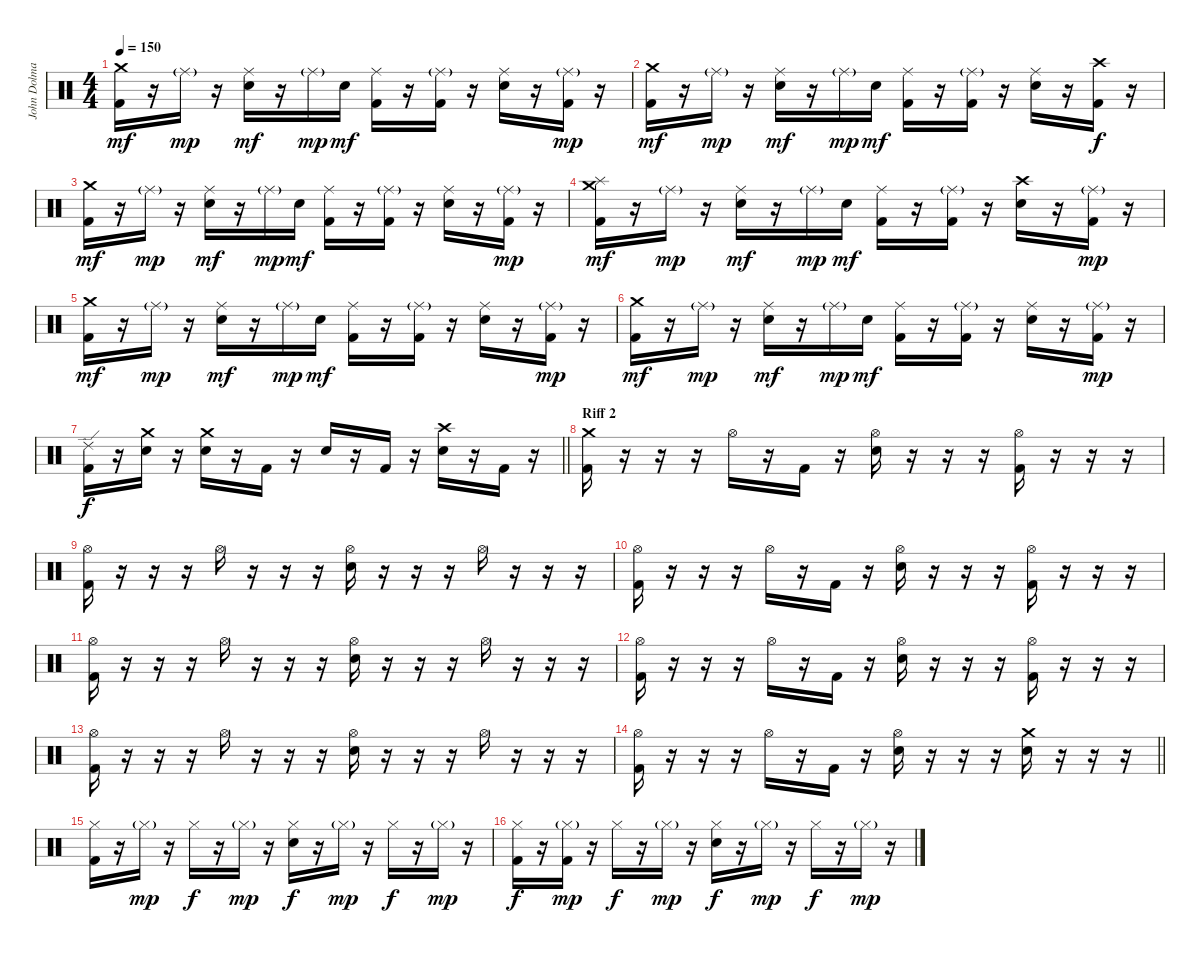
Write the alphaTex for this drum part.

\track ("John Dolmayan" "John Dolma") {instrument percussion}
\staff {score}
\articulation defaults
\ts (4 4)
\tempo 150
\clef neutral
\ks c
("Crash medium (hit)" "Kick (hit) 2").16{dy mf} r.16 "Ride (middle)"{g}.16{dy mp} r.16 ("Ride (middle)" "Electric Snare (hit)").16{dy mf} r.16 "Ride (middle)"{g}.16{dy mp} "Electric Snare (hit)".16{dy mf} ("Ride (middle)" "Kick (hit) 2").16 r.16 ("Ride (middle)"{g} "Kick (hit) 2").16 r.16 ("Ride (middle)" "Electric Snare (hit)").16 r.16 ("Ride (middle)"{g} "Kick (hit) 2").16{dy mp} r.16 |
("Crash medium (hit)" "Kick (hit) 2").16{dy mf} r.16 "Ride (middle)"{g}.16{dy mp} r.16 ("Ride (middle)" "Electric Snare (hit)").16{dy mf} r.16 "Ride (middle)"{g}.16{dy mp} "Electric Snare (hit)".16{dy mf} ("Ride (middle)" "Kick (hit) 2").16 r.16 ("Ride (middle)"{g} "Kick (hit) 2").16 r.16 ("Ride (middle)" "Electric Snare (hit)").16 r.16 ("Crash high (hit)" "Kick (hit) 2").16{dy f} r.16 |
("Crash medium (hit)" "Kick (hit) 2").16{dy mf} r.16 "Ride (middle)"{g}.16{dy mp} r.16 ("Ride (middle)" "Electric Snare (hit)").16{dy mf} r.16 "Ride (middle)"{g}.16{dy mp} "Electric Snare (hit)".16{dy mf} ("Ride (middle)" "Kick (hit) 2").16 r.16 ("Ride (middle)"{g} "Kick (hit) 2").16 r.16 ("Ride (middle)" "Electric Snare (hit)").16 r.16 ("Ride (middle)"{g} "Kick (hit) 2").16{dy mp} r.16 |
("Crash medium (hit)" "Splash (hit)" "Kick (hit) 2").16{dy mf} r.16 "Ride (middle)"{g}.16{dy mp} r.16 ("Ride (middle)" "Electric Snare (hit)").16{dy mf} r.16 "Ride (middle)"{g}.16{dy mp} "Electric Snare (hit)".16{dy mf} ("Ride (middle)" "Kick (hit) 2").16 r.16 ("Ride (middle)"{g} "Kick (hit) 2").16 r.16 ("Crash high (hit)" "Electric Snare (hit)").16 r.16 ("Ride (middle)"{g} "Kick (hit) 2").16{dy mp} r.16 |
("Crash medium (hit)" "Kick (hit) 2").16{dy mf} r.16 "Ride (middle)"{g}.16{dy mp} r.16 ("Ride (middle)" "Electric Snare (hit)").16{dy mf} r.16 "Ride (middle)"{g}.16{dy mp} "Electric Snare (hit)".16{dy mf} ("Ride (middle)" "Kick (hit) 2").16 r.16 ("Ride (middle)"{g} "Kick (hit) 2").16 r.16 ("Ride (middle)" "Electric Snare (hit)").16 r.16 ("Ride (middle)"{g} "Kick (hit) 2").16{dy mp} r.16 |
("Crash medium (hit)" "Kick (hit) 2").16{dy mf} r.16 "Ride (middle)"{g}.16{dy mp} r.16 ("Ride (middle)" "Electric Snare (hit)").16{dy mf} r.16 "Ride (middle)"{g}.16{dy mp} "Electric Snare (hit)".16{dy mf} ("Ride (middle)" "Kick (hit) 2").16 r.16 ("Ride (middle)"{g} "Kick (hit) 2").16 r.16 ("Ride (middle)" "Electric Snare (hit)").16 r.16 ("Ride (middle)"{g} "Kick (hit) 2").16{dy mp} r.16 |
\barLineRight lightlight
("Ride (edge) 2" "Kick (hit) 2").16{dy f} r.16 ("Crash medium (hit)" "Electric Snare (hit)").16 r.16 ("Crash medium (hit)" "Electric Snare (hit)").16 r.16 "Kick (hit) 2".16 r.16 "Electric Snare (hit)".16 r.16 "Kick (hit) 2".16 r.16 ("Crash high (hit)" "Electric Snare (hit)").16 r.16 "Kick (hit) 2".16 r.16 |
\section ("" "Riff 2")
("Crash medium (hit)" "Kick (hit) 2").16 r.16 r.16 r.16 "Hi-Hat (open)".16 r.16 "Kick (hit) 2".16 r.16 ("Hi-Hat (open)" "Electric Snare (hit)").16 r.16 r.16 r.16 ("Hi-Hat (open)" "Kick (hit) 2").16 r.16 r.16 r.16 |
("Hi-Hat (open)" "Kick (hit) 2").16 r.16 r.16 r.16 "Hi-Hat (open)".16 r.16 r.16 r.16 ("Hi-Hat (open)" "Electric Snare (hit)").16 r.16 r.16 r.16 "Hi-Hat (open)".16 r.16 r.16 r.16 |
("Hi-Hat (open)" "Kick (hit) 2").16 r.16 r.16 r.16 "Hi-Hat (open)".16 r.16 "Kick (hit) 2".16 r.16 ("Hi-Hat (open)" "Electric Snare (hit)").16 r.16 r.16 r.16 ("Hi-Hat (open)" "Kick (hit) 2").16 r.16 r.16 r.16 |
("Hi-Hat (open)" "Kick (hit) 2").16 r.16 r.16 r.16 "Hi-Hat (open)".16 r.16 r.16 r.16 ("Hi-Hat (open)" "Electric Snare (hit)").16 r.16 r.16 r.16 "Hi-Hat (open)".16 r.16 r.16 r.16 |
("Hi-Hat (open)" "Kick (hit) 2").16 r.16 r.16 r.16 "Hi-Hat (open)".16 r.16 "Kick (hit) 2".16 r.16 ("Hi-Hat (open)" "Electric Snare (hit)").16 r.16 r.16 r.16 ("Hi-Hat (open)" "Kick (hit) 2").16 r.16 r.16 r.16 |
("Hi-Hat (open)" "Kick (hit) 2").16 r.16 r.16 r.16 "Hi-Hat (open)".16 r.16 r.16 r.16 ("Hi-Hat (open)" "Electric Snare (hit)").16 r.16 r.16 r.16 "Hi-Hat (open)".16 r.16 r.16 r.16 |
\barLineRight lightlight
("Hi-Hat (open)" "Kick (hit) 2").16 r.16 r.16 r.16 "Hi-Hat (open)".16 r.16 "Kick (hit) 2".16 r.16 ("Hi-Hat (open)" "Electric Snare (hit)").16 r.16 r.16 r.16 ("Crash medium (hit)" "Electric Snare (hit)").16 r.16 r.16 r.16 |
("Hi-Hat (closed)" "Kick (hit) 2").16 r.16 "Hi-Hat (closed)"{g}.16{dy mp} r.16 "Hi-Hat (closed)".16{dy f} r.16 "Hi-Hat (closed)"{g}.16{dy mp} r.16 ("Hi-Hat (closed)" "Electric Snare (hit)").16{dy f} r.16 "Hi-Hat (closed)"{g}.16{dy mp} r.16 "Hi-Hat (closed)".16{dy f} r.16 "Hi-Hat (closed)"{g}.16{dy mp} r.16 |
("Hi-Hat (closed)" "Kick (hit) 2").16{dy f} r.16 ("Hi-Hat (closed)"{g} "Kick (hit) 2").16{dy mp} r.16 "Hi-Hat (closed)".16{dy f} r.16 "Hi-Hat (closed)"{g}.16{dy mp} r.16 ("Hi-Hat (closed)" "Electric Snare (hit)").16{dy f} r.16 "Hi-Hat (closed)"{g}.16{dy mp} r.16 "Hi-Hat (closed)".16{dy f} r.16 "Hi-Hat (closed)"{g}.16{dy mp} r.16
